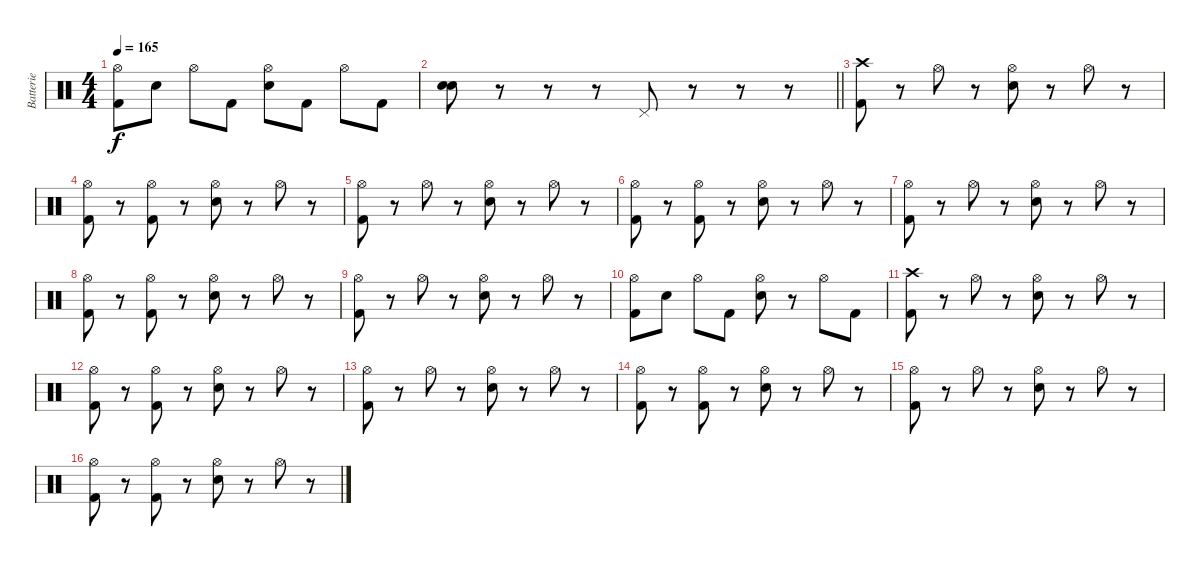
\track ("Batterie" "Batterie") {instrument percussion}
\staff {score}
\articulation defaults
\ts (4 4)
\tempo 165
\clef neutral
\ks c
("Hi-Hat (open)" "Kick (hit) 2").8{dy f} "Electric Snare (hit)".8 "Hi-Hat (open)".8 "Kick (hit) 2".8 ("Hi-Hat (open)" "Electric Snare (hit)").8 "Kick (hit) 2".8 "Hi-Hat (open)".8 "Kick (hit) 2".8 |
\barLineRight lightlight
("Electric Snare (hit)" "Electric Snare (hit)").8{bu 120} r.8 r.8 r.8 "Pedal Hi-Hat (hit)".8 r.8 r.8 r.8 |
("Crash high (hit)" "Kick (hit) 2").8 r.8 "Hi-Hat (open)".8 r.8 ("Hi-Hat (open)" "Electric Snare (hit)").8 r.8 "Hi-Hat (open)".8 r.8 |
("Hi-Hat (open)" "Kick (hit) 2").8 r.8 ("Hi-Hat (open)" "Kick (hit) 2").8 r.8 ("Hi-Hat (open)" "Electric Snare (hit)").8 r.8 "Hi-Hat (open)".8 r.8 |
("Hi-Hat (open)" "Kick (hit) 2").8 r.8 "Hi-Hat (open)".8 r.8 ("Hi-Hat (open)" "Electric Snare (hit)").8 r.8 "Hi-Hat (open)".8 r.8 |
("Hi-Hat (open)" "Kick (hit) 2").8 r.8 ("Hi-Hat (open)" "Kick (hit) 2").8 r.8 ("Hi-Hat (open)" "Electric Snare (hit)").8 r.8 "Hi-Hat (open)".8 r.8 |
("Hi-Hat (open)" "Kick (hit) 2").8 r.8 "Hi-Hat (open)".8 r.8 ("Hi-Hat (open)" "Electric Snare (hit)").8 r.8 "Hi-Hat (open)".8 r.8 |
("Hi-Hat (open)" "Kick (hit) 2").8 r.8 ("Hi-Hat (open)" "Kick (hit) 2").8 r.8 ("Hi-Hat (open)" "Electric Snare (hit)").8 r.8 "Hi-Hat (open)".8 r.8 |
("Hi-Hat (open)" "Kick (hit) 2").8 r.8 "Hi-Hat (open)".8 r.8 ("Hi-Hat (open)" "Electric Snare (hit)").8 r.8 "Hi-Hat (open)".8 r.8 |
("Hi-Hat (open)" "Kick (hit) 2").8 "Electric Snare (hit)".8 "Hi-Hat (open)".8 "Kick (hit) 2".8 ("Hi-Hat (open)" "Electric Snare (hit)").8 r.8 "Hi-Hat (open)".8 "Kick (hit) 2".8 |
("Crash high (hit)" "Kick (hit) 2").8 r.8 "Hi-Hat (open)".8 r.8 ("Hi-Hat (open)" "Electric Snare (hit)").8 r.8 "Hi-Hat (open)".8 r.8 |
("Hi-Hat (open)" "Kick (hit) 2").8 r.8 ("Hi-Hat (open)" "Kick (hit) 2").8 r.8 ("Hi-Hat (open)" "Electric Snare (hit)").8 r.8 "Hi-Hat (open)".8 r.8 |
("Hi-Hat (open)" "Kick (hit) 2").8 r.8 "Hi-Hat (open)".8 r.8 ("Hi-Hat (open)" "Electric Snare (hit)").8 r.8 "Hi-Hat (open)".8 r.8 |
("Hi-Hat (open)" "Kick (hit) 2").8 r.8 ("Hi-Hat (open)" "Kick (hit) 2").8 r.8 ("Hi-Hat (open)" "Electric Snare (hit)").8 r.8 "Hi-Hat (open)".8 r.8 |
("Hi-Hat (open)" "Kick (hit) 2").8 r.8 "Hi-Hat (open)".8 r.8 ("Hi-Hat (open)" "Electric Snare (hit)").8 r.8 "Hi-Hat (open)".8 r.8 |
("Hi-Hat (open)" "Kick (hit) 2").8 r.8 ("Hi-Hat (open)" "Kick (hit) 2").8 r.8 ("Hi-Hat (open)" "Electric Snare (hit)").8 r.8 "Hi-Hat (open)".8 r.8
